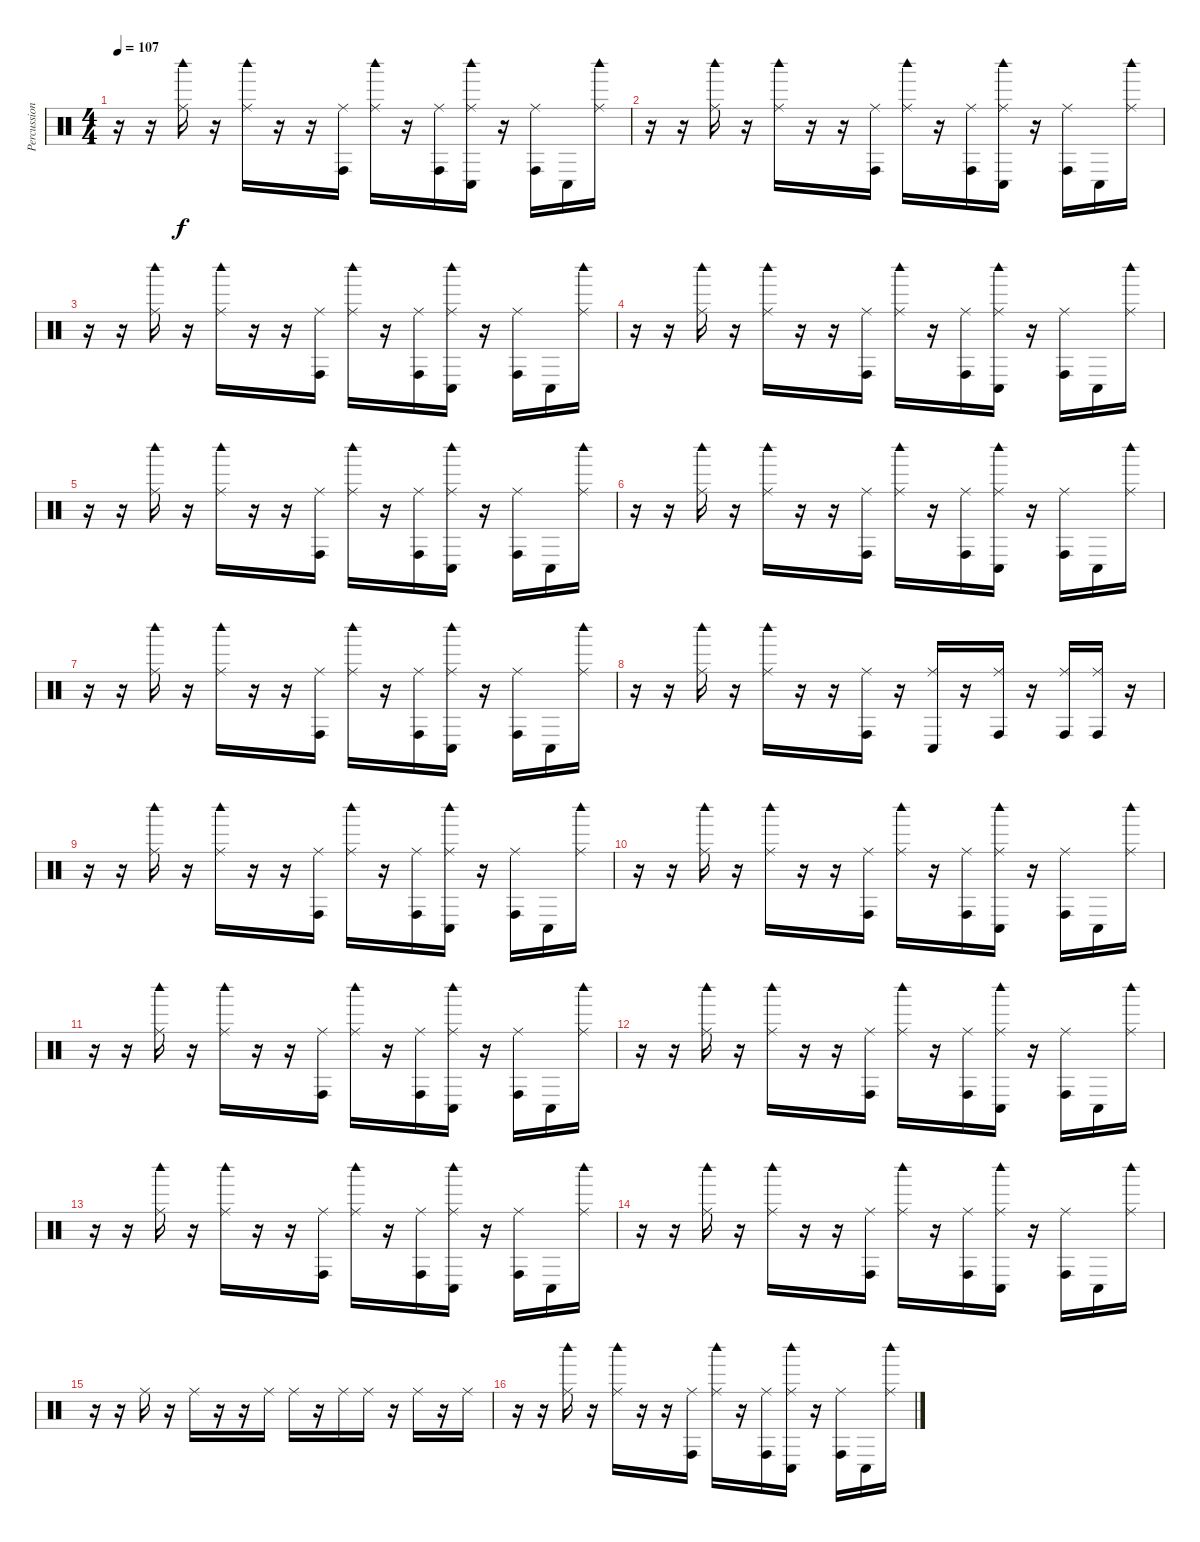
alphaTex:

\track ("Percussioni" "Percussion") {instrument percussion}
\staff {score}
\articulation defaults
\ts (4 4)
\tempo 107
\clef neutral
\ks c
r.16{dy f} r.16 ("Woodblock high (hit)" "Ride (middle)").16 r.16 ("Woodblock high (hit)" "Ride (middle)").16 r.16 r.16 ("Ride (middle)" "Conga high (hit)").16 ("Woodblock high (hit)" "Ride (middle)").16 r.16 ("Ride (middle)" "Conga high (hit)").16 ("Woodblock high (hit)" "Ride (middle)" "Conga low (hit)").16 r.16 ("Ride (middle)" "Conga high (hit)").16 "Conga low (hit)".16 ("Woodblock high (hit)" "Ride (middle)").16 |
r.16 r.16 ("Woodblock high (hit)" "Ride (middle)").16 r.16 ("Woodblock high (hit)" "Ride (middle)").16 r.16 r.16 ("Ride (middle)" "Conga high (hit)").16 ("Woodblock high (hit)" "Ride (middle)").16 r.16 ("Ride (middle)" "Conga high (hit)").16 ("Woodblock high (hit)" "Ride (middle)" "Conga low (hit)").16 r.16 ("Ride (middle)" "Conga high (hit)").16 "Conga low (hit)".16 ("Woodblock high (hit)" "Ride (middle)").16 |
r.16 r.16 ("Woodblock high (hit)" "Ride (middle)").16 r.16 ("Woodblock high (hit)" "Ride (middle)").16 r.16 r.16 ("Ride (middle)" "Conga high (hit)").16 ("Woodblock high (hit)" "Ride (middle)").16 r.16 ("Ride (middle)" "Conga high (hit)").16 ("Woodblock high (hit)" "Ride (middle)" "Conga low (hit)").16 r.16 ("Ride (middle)" "Conga high (hit)").16 "Conga low (hit)".16 ("Woodblock high (hit)" "Ride (middle)").16 |
r.16 r.16 ("Woodblock high (hit)" "Ride (middle)").16 r.16 ("Woodblock high (hit)" "Ride (middle)").16 r.16 r.16 ("Ride (middle)" "Conga high (hit)").16 ("Woodblock high (hit)" "Ride (middle)").16 r.16 ("Ride (middle)" "Conga high (hit)").16 ("Woodblock high (hit)" "Ride (middle)" "Conga low (hit)").16 r.16 ("Ride (middle)" "Conga high (hit)").16 "Conga low (hit)".16 ("Woodblock high (hit)" "Ride (middle)").16 |
r.16 r.16 ("Woodblock high (hit)" "Ride (middle)").16 r.16 ("Woodblock high (hit)" "Ride (middle)").16 r.16 r.16 ("Ride (middle)" "Conga high (hit)").16 ("Woodblock high (hit)" "Ride (middle)").16 r.16 ("Ride (middle)" "Conga high (hit)").16 ("Woodblock high (hit)" "Ride (middle)" "Conga low (hit)").16 r.16 ("Ride (middle)" "Conga high (hit)").16 "Conga low (hit)".16 ("Woodblock high (hit)" "Ride (middle)").16 |
r.16 r.16 ("Woodblock high (hit)" "Ride (middle)").16 r.16 ("Woodblock high (hit)" "Ride (middle)").16 r.16 r.16 ("Ride (middle)" "Conga high (hit)").16 ("Woodblock high (hit)" "Ride (middle)").16 r.16 ("Ride (middle)" "Conga high (hit)").16 ("Woodblock high (hit)" "Ride (middle)" "Conga low (hit)").16 r.16 ("Ride (middle)" "Conga high (hit)").16 "Conga low (hit)".16 ("Woodblock high (hit)" "Ride (middle)").16 |
r.16 r.16 ("Woodblock high (hit)" "Ride (middle)").16 r.16 ("Woodblock high (hit)" "Ride (middle)").16 r.16 r.16 ("Ride (middle)" "Conga high (hit)").16 ("Woodblock high (hit)" "Ride (middle)").16 r.16 ("Ride (middle)" "Conga high (hit)").16 ("Woodblock high (hit)" "Ride (middle)" "Conga low (hit)").16 r.16 ("Ride (middle)" "Conga high (hit)").16 "Conga low (hit)".16 ("Woodblock high (hit)" "Ride (middle)").16 |
r.16 r.16 ("Woodblock high (hit)" "Ride (middle)").16 r.16 ("Woodblock high (hit)" "Ride (middle)").16 r.16 r.16 ("Ride (middle)" "Conga high (hit)").16 r.16 ("Conga low (hit)" "Ride (middle)").16 r.16 ("Ride (middle)" "Conga high (hit)").16 r.16 ("Ride (middle)" "Conga high (hit)").16 ("Ride (middle)" "Conga high (hit)").16 r.16 |
r.16 r.16 ("Woodblock high (hit)" "Ride (middle)").16 r.16 ("Woodblock high (hit)" "Ride (middle)").16 r.16 r.16 ("Ride (middle)" "Conga high (hit)").16 ("Woodblock high (hit)" "Ride (middle)").16 r.16 ("Ride (middle)" "Conga high (hit)").16 ("Woodblock high (hit)" "Ride (middle)" "Conga low (hit)").16 r.16 ("Ride (middle)" "Conga high (hit)").16 "Conga low (hit)".16 ("Woodblock high (hit)" "Ride (middle)").16 |
r.16 r.16 ("Woodblock high (hit)" "Ride (middle)").16 r.16 ("Woodblock high (hit)" "Ride (middle)").16 r.16 r.16 ("Ride (middle)" "Conga high (hit)").16 ("Woodblock high (hit)" "Ride (middle)").16 r.16 ("Ride (middle)" "Conga high (hit)").16 ("Woodblock high (hit)" "Ride (middle)" "Conga low (hit)").16 r.16 ("Ride (middle)" "Conga high (hit)").16 "Conga low (hit)".16 ("Woodblock high (hit)" "Ride (middle)").16 |
r.16 r.16 ("Woodblock high (hit)" "Ride (middle)").16 r.16 ("Woodblock high (hit)" "Ride (middle)").16 r.16 r.16 ("Ride (middle)" "Conga high (hit)").16 ("Woodblock high (hit)" "Ride (middle)").16 r.16 ("Ride (middle)" "Conga high (hit)").16 ("Woodblock high (hit)" "Ride (middle)" "Conga low (hit)").16 r.16 ("Ride (middle)" "Conga high (hit)").16 "Conga low (hit)".16 ("Woodblock high (hit)" "Ride (middle)").16 |
r.16 r.16 ("Woodblock high (hit)" "Ride (middle)").16 r.16 ("Woodblock high (hit)" "Ride (middle)").16 r.16 r.16 ("Ride (middle)" "Conga high (hit)").16 ("Woodblock high (hit)" "Ride (middle)").16 r.16 ("Ride (middle)" "Conga high (hit)").16 ("Woodblock high (hit)" "Ride (middle)" "Conga low (hit)").16 r.16 ("Ride (middle)" "Conga high (hit)").16 "Conga low (hit)".16 ("Woodblock high (hit)" "Ride (middle)").16 |
r.16 r.16 ("Woodblock high (hit)" "Ride (middle)").16 r.16 ("Woodblock high (hit)" "Ride (middle)").16 r.16 r.16 ("Ride (middle)" "Conga high (hit)").16 ("Woodblock high (hit)" "Ride (middle)").16 r.16 ("Ride (middle)" "Conga high (hit)").16 ("Woodblock high (hit)" "Ride (middle)" "Conga low (hit)").16 r.16 ("Ride (middle)" "Conga high (hit)").16 "Conga low (hit)".16 ("Woodblock high (hit)" "Ride (middle)").16 |
r.16 r.16 ("Woodblock high (hit)" "Ride (middle)").16 r.16 ("Woodblock high (hit)" "Ride (middle)").16 r.16 r.16 ("Ride (middle)" "Conga high (hit)").16 ("Woodblock high (hit)" "Ride (middle)").16 r.16 ("Ride (middle)" "Conga high (hit)").16 ("Woodblock high (hit)" "Ride (middle)" "Conga low (hit)").16 r.16 ("Ride (middle)" "Conga high (hit)").16 "Conga low (hit)".16 ("Woodblock high (hit)" "Ride (middle)").16 |
r.16 r.16 "Ride (middle)".16 r.16 "Ride (middle)".16 r.16 r.16 "Ride (middle)".16 "Ride (middle)".16 r.16 "Ride (middle)".16 "Ride (middle)".16 r.16 "Ride (middle)".16 r.16 "Ride (middle)".16 |
r.16 r.16 ("Woodblock high (hit)" "Ride (middle)").16 r.16 ("Woodblock high (hit)" "Ride (middle)").16 r.16 r.16 ("Ride (middle)" "Conga high (hit)").16 ("Woodblock high (hit)" "Ride (middle)").16 r.16 ("Ride (middle)" "Conga high (hit)").16 ("Woodblock high (hit)" "Ride (middle)" "Conga low (hit)").16 r.16 ("Ride (middle)" "Conga high (hit)").16 "Conga low (hit)".16 ("Woodblock high (hit)" "Ride (middle)").16
